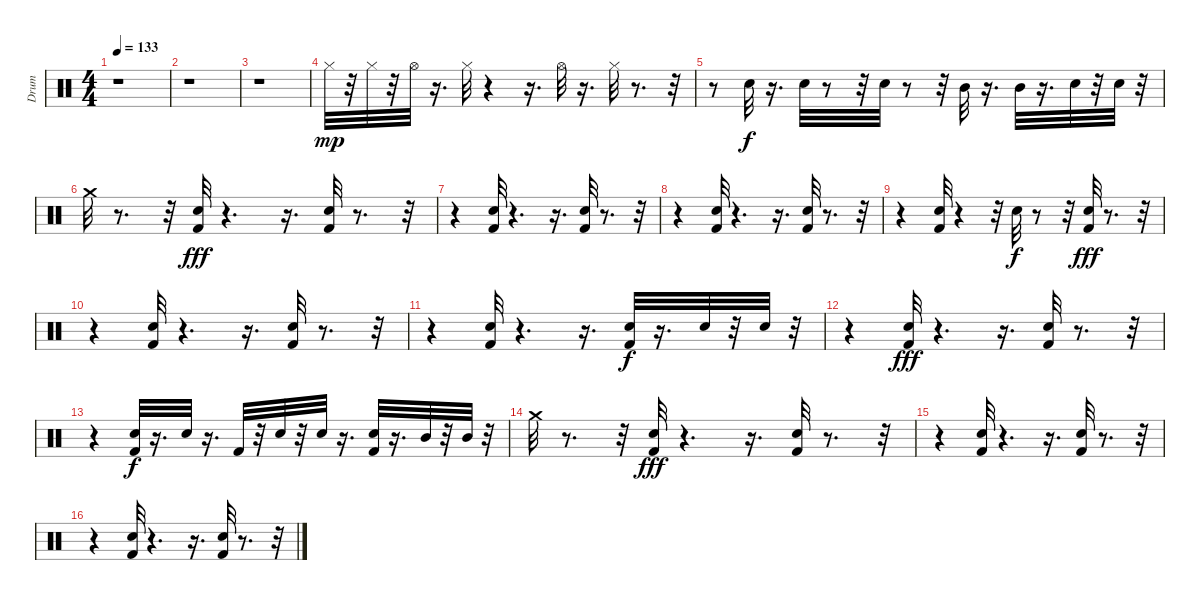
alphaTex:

\track ("Drum" "Drum") {instrument percussion}
\staff {score}
\articulation defaults
\ts (4 4)
\tempo 133
\clef neutral
\ks c
r.1{dy mp} |
r.1 |
r.1 |
"Hi-Hat (closed)".32 r.32 "Hi-Hat (closed)".32 r.32 "Hi-Hat (open)".32 r.16{d} "Hi-Hat (closed)".32 r.4 r.16{d} "Hi-Hat (open)".32 r.16{d} "Hi-Hat (closed)".32 r.8{d} r.32 |
r.8 "Electric Snare (hit)".32{dy f} r.16{d} "Electric Snare (hit)".32 r.8 r.32 "Electric Snare (hit)".32 r.8 r.32 "Mid Tom (hit)".32 r.16{d} "Mid Tom (hit)".32 r.16{d} "Electric Snare (hit)".32 r.32 "Electric Snare (hit)".32 r.32 |
"Crash medium (hit)".32 r.8{d} r.32 ("Electric Snare (hit)" "Kick (hit) 2").32{dy fff} r.4{d} r.16{d} ("Electric Snare (hit)" "Kick (hit) 2").32 r.8{d} r.32 |
r.4 ("Electric Snare (hit)" "Kick (hit) 2").32 r.4{d} r.16{d} ("Electric Snare (hit)" "Kick (hit) 2").32 r.8{d} r.32 |
r.4 ("Electric Snare (hit)" "Kick (hit) 2").32 r.4{d} r.16{d} ("Electric Snare (hit)" "Kick (hit) 2").32 r.8{d} r.32 |
r.4 ("Electric Snare (hit)" "Kick (hit) 2").32 r.4 r.32 "Electric Snare (hit)".32{dy f} r.8 r.32 ("Electric Snare (hit)" "Kick (hit) 2").32{dy fff} r.8{d} r.32 |
r.4 ("Electric Snare (hit)" "Kick (hit) 2").32 r.4{d} r.16{d} ("Electric Snare (hit)" "Kick (hit) 2").32 r.8{d} r.32 |
r.4 ("Electric Snare (hit)" "Kick (hit) 2").32 r.4{d} r.16{d} ("Kick (hit) 2" "Electric Snare (hit)").32{dy f} r.16{d} "Electric Snare (hit)".32 r.32 "Electric Snare (hit)".32 r.32 |
r.4 ("Electric Snare (hit)" "Kick (hit) 2").32{dy fff} r.4{d} r.16{d} ("Electric Snare (hit)" "Kick (hit) 2").32 r.8{d} r.32 |
r.4 ("Electric Snare (hit)" "Kick (hit) 2").32{dy f} r.16{d} "Electric Snare (hit)".32 r.16{d} "Kick (hit) 2".32 r.32 "Electric Snare (hit)".32 r.32 "Electric Snare (hit)".32 r.16{d} ("Kick (hit) 2" "Electric Snare (hit)").32 r.16{d} "Mid Tom (hit)".32 r.32 "Mid Tom (hit)".32 r.32 |
"Crash medium (hit)".32 r.8{d} r.32 ("Electric Snare (hit)" "Kick (hit) 2").32{dy fff} r.4{d} r.16{d} ("Electric Snare (hit)" "Kick (hit) 2").32 r.8{d} r.32 |
r.4 ("Electric Snare (hit)" "Kick (hit) 2").32 r.4{d} r.16{d} ("Electric Snare (hit)" "Kick (hit) 2").32 r.8{d} r.32 |
r.4 ("Electric Snare (hit)" "Kick (hit) 2").32 r.4{d} r.16{d} ("Electric Snare (hit)" "Kick (hit) 2").32 r.8{d} r.32
